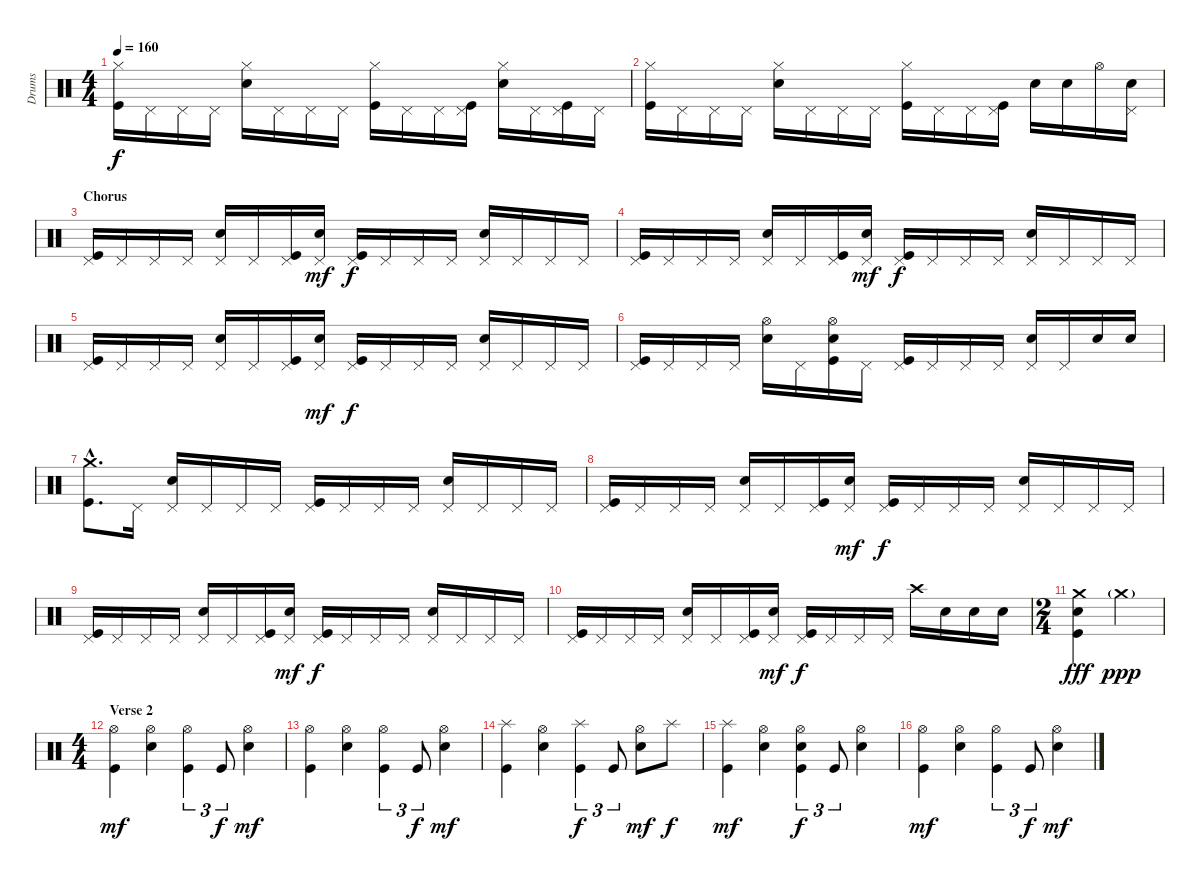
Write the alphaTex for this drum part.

\track ("Drums" "Drums") {instrument percussion}
\staff {score}
\articulation defaults
\ts (4 4)
\tempo 160
\clef neutral
\ks c
("Hi-Hat (closed)" "Kick (hit)").16{dy f} "Pedal Hi-Hat (hit)".16 "Pedal Hi-Hat (hit)".16 "Pedal Hi-Hat (hit)".16 ("Hi-Hat (closed)" "Electric Snare (hit)").16 "Pedal Hi-Hat (hit)".16 "Pedal Hi-Hat (hit)".16 "Pedal Hi-Hat (hit)".16 ("Hi-Hat (closed)" "Kick (hit)").16 "Pedal Hi-Hat (hit)".16 "Pedal Hi-Hat (hit)".16 ("Pedal Hi-Hat (hit)" "Kick (hit)").16 ("Hi-Hat (closed)" "Electric Snare (hit)").16 "Pedal Hi-Hat (hit)".16 ("Pedal Hi-Hat (hit)" "Kick (hit)").16 "Pedal Hi-Hat (hit)".16 |
("Hi-Hat (closed)" "Kick (hit)").16 "Pedal Hi-Hat (hit)".16 "Pedal Hi-Hat (hit)".16 "Pedal Hi-Hat (hit)".16 ("Hi-Hat (closed)" "Electric Snare (hit)").16 "Pedal Hi-Hat (hit)".16 "Pedal Hi-Hat (hit)".16 "Pedal Hi-Hat (hit)".16 ("Hi-Hat (closed)" "Kick (hit)").16 "Pedal Hi-Hat (hit)".16 "Pedal Hi-Hat (hit)".16 ("Pedal Hi-Hat (hit)" "Kick (hit)").16 "Electric Snare (hit)".16 "Electric Snare (hit)".16 "Hi-Hat (open)".16 ("Pedal Hi-Hat (hit)" "Electric Snare (hit)").16 |
\section ("" "Chorus")
("Pedal Hi-Hat (hit)" "Kick (hit)").16 "Pedal Hi-Hat (hit)".16 "Pedal Hi-Hat (hit)".16 "Pedal Hi-Hat (hit)".16 ("Pedal Hi-Hat (hit)" "Electric Snare (hit)").16 "Pedal Hi-Hat (hit)".16 ("Pedal Hi-Hat (hit)" "Kick (hit)").16 ("Pedal Hi-Hat (hit)" "Electric Snare (hit)").16{dy mf} ("Pedal Hi-Hat (hit)" "Kick (hit)").16{dy f} "Pedal Hi-Hat (hit)".16 "Pedal Hi-Hat (hit)".16 "Pedal Hi-Hat (hit)".16 ("Pedal Hi-Hat (hit)" "Electric Snare (hit)").16 "Pedal Hi-Hat (hit)".16 "Pedal Hi-Hat (hit)".16 "Pedal Hi-Hat (hit)".16 |
("Pedal Hi-Hat (hit)" "Kick (hit)").16 "Pedal Hi-Hat (hit)".16 "Pedal Hi-Hat (hit)".16 "Pedal Hi-Hat (hit)".16 ("Pedal Hi-Hat (hit)" "Electric Snare (hit)").16 "Pedal Hi-Hat (hit)".16 ("Pedal Hi-Hat (hit)" "Kick (hit)").16 ("Pedal Hi-Hat (hit)" "Electric Snare (hit)").16{dy mf} ("Pedal Hi-Hat (hit)" "Kick (hit)").16{dy f} "Pedal Hi-Hat (hit)".16 "Pedal Hi-Hat (hit)".16 "Pedal Hi-Hat (hit)".16 ("Pedal Hi-Hat (hit)" "Electric Snare (hit)").16 "Pedal Hi-Hat (hit)".16 "Pedal Hi-Hat (hit)".16 "Pedal Hi-Hat (hit)".16 |
("Pedal Hi-Hat (hit)" "Kick (hit)").16 "Pedal Hi-Hat (hit)".16 "Pedal Hi-Hat (hit)".16 "Pedal Hi-Hat (hit)".16 ("Pedal Hi-Hat (hit)" "Electric Snare (hit)").16 "Pedal Hi-Hat (hit)".16 ("Pedal Hi-Hat (hit)" "Kick (hit)").16 ("Pedal Hi-Hat (hit)" "Electric Snare (hit)").16{dy mf} ("Pedal Hi-Hat (hit)" "Kick (hit)").16{dy f} "Pedal Hi-Hat (hit)".16 "Pedal Hi-Hat (hit)".16 "Pedal Hi-Hat (hit)".16 ("Pedal Hi-Hat (hit)" "Electric Snare (hit)").16 "Pedal Hi-Hat (hit)".16 "Pedal Hi-Hat (hit)".16 "Pedal Hi-Hat (hit)".16 |
("Pedal Hi-Hat (hit)" "Kick (hit)").16 "Pedal Hi-Hat (hit)".16 "Pedal Hi-Hat (hit)".16 "Pedal Hi-Hat (hit)".16 ("Hi-Hat (open)" "Electric Snare (hit)").16 "Pedal Hi-Hat (hit)".16 ("Hi-Hat (open)" "Electric Snare (hit)" "Kick (hit)").16 "Pedal Hi-Hat (hit)".16 ("Pedal Hi-Hat (hit)" "Kick (hit)").16 "Pedal Hi-Hat (hit)".16 "Pedal Hi-Hat (hit)".16 "Pedal Hi-Hat (hit)".16 ("Pedal Hi-Hat (hit)" "Electric Snare (hit)").16 "Pedal Hi-Hat (hit)".16 "Electric Snare (hit)".16 "Electric Snare (hit)".16 |
("Crash medium (hit)"{hac} "Kick (hit)"{hac}).8{d} "Pedal Hi-Hat (hit)".16 ("Pedal Hi-Hat (hit)" "Electric Snare (hit)").16 "Pedal Hi-Hat (hit)".16 "Pedal Hi-Hat (hit)".16 "Pedal Hi-Hat (hit)".16 ("Pedal Hi-Hat (hit)" "Kick (hit)").16 "Pedal Hi-Hat (hit)".16 "Pedal Hi-Hat (hit)".16 "Pedal Hi-Hat (hit)".16 ("Pedal Hi-Hat (hit)" "Electric Snare (hit)").16 "Pedal Hi-Hat (hit)".16 "Pedal Hi-Hat (hit)".16 "Pedal Hi-Hat (hit)".16 |
("Pedal Hi-Hat (hit)" "Kick (hit)").16 "Pedal Hi-Hat (hit)".16 "Pedal Hi-Hat (hit)".16 "Pedal Hi-Hat (hit)".16 ("Pedal Hi-Hat (hit)" "Electric Snare (hit)").16 "Pedal Hi-Hat (hit)".16 ("Pedal Hi-Hat (hit)" "Kick (hit)").16 ("Pedal Hi-Hat (hit)" "Electric Snare (hit)").16{dy mf} ("Pedal Hi-Hat (hit)" "Kick (hit)").16{dy f} "Pedal Hi-Hat (hit)".16 "Pedal Hi-Hat (hit)".16 "Pedal Hi-Hat (hit)".16 ("Pedal Hi-Hat (hit)" "Electric Snare (hit)").16 "Pedal Hi-Hat (hit)".16 "Pedal Hi-Hat (hit)".16 "Pedal Hi-Hat (hit)".16 |
("Pedal Hi-Hat (hit)" "Kick (hit)").16 "Pedal Hi-Hat (hit)".16 "Pedal Hi-Hat (hit)".16 "Pedal Hi-Hat (hit)".16 ("Pedal Hi-Hat (hit)" "Electric Snare (hit)").16 "Pedal Hi-Hat (hit)".16 ("Pedal Hi-Hat (hit)" "Kick (hit)").16 ("Pedal Hi-Hat (hit)" "Electric Snare (hit)").16{dy mf} ("Pedal Hi-Hat (hit)" "Kick (hit)").16{dy f} "Pedal Hi-Hat (hit)".16 "Pedal Hi-Hat (hit)".16 "Pedal Hi-Hat (hit)".16 ("Pedal Hi-Hat (hit)" "Electric Snare (hit)").16 "Pedal Hi-Hat (hit)".16 "Pedal Hi-Hat (hit)".16 "Pedal Hi-Hat (hit)".16 |
("Pedal Hi-Hat (hit)" "Kick (hit)").16 "Pedal Hi-Hat (hit)".16 "Pedal Hi-Hat (hit)".16 "Pedal Hi-Hat (hit)".16 ("Pedal Hi-Hat (hit)" "Electric Snare (hit)").16 "Pedal Hi-Hat (hit)".16 ("Pedal Hi-Hat (hit)" "Kick (hit)").16 ("Pedal Hi-Hat (hit)" "Electric Snare (hit)").16{dy mf} ("Pedal Hi-Hat (hit)" "Kick (hit)").16{dy f} "Pedal Hi-Hat (hit)".16 "Pedal Hi-Hat (hit)".16 "Pedal Hi-Hat (hit)".16 "Crash high (hit)".16 "Electric Snare (hit)".16 "Electric Snare (hit)".16 "Electric Snare (hit)".16 |
\ts (2 4)
("Crash medium (hit)" "Electric Snare (hit)" "Kick (hit)").4{dy fff} "Crash medium (hit)"{g}.4{dy ppp} |
\ts (4 4)
\section ("" "Verse 2")
("Hi-Hat (open)" "Kick (hit)").4{dy mf} ("Hi-Hat (open)" "Electric Snare (hit)").4 ("Hi-Hat (open)" "Kick (hit)").4{tu (3 2)} "Kick (hit)".8{tu (3 2) dy f} ("Hi-Hat (open)" "Electric Snare (hit)").4{dy mf} |
("Hi-Hat (open)" "Kick (hit)").4 ("Hi-Hat (open)" "Electric Snare (hit)").4 ("Hi-Hat (open)" "Kick (hit)").4{tu (3 2)} "Kick (hit)".8{tu (3 2) dy f} ("Hi-Hat (open)" "Electric Snare (hit)").4{dy mf} |
("Splash (hit)" "Kick (hit)").4 ("Hi-Hat (open)" "Electric Snare (hit)").4 ("Splash (hit)" "Kick (hit)").4{tu (3 2) dy f} "Kick (hit)".8{tu (3 2)} ("Hi-Hat (open)" "Electric Snare (hit)").8{dy mf} "Splash (hit)".8{dy f} |
("Splash (hit)" "Kick (hit)").4{dy mf} ("Hi-Hat (open)" "Electric Snare (hit)").4 ("Hi-Hat (open)" "Electric Snare (hit)" "Kick (hit)").4{tu (3 2) dy f} "Kick (hit)".8{tu (3 2)} ("Hi-Hat (open)" "Electric Snare (hit)").4 |
("Hi-Hat (open)" "Kick (hit)").4{dy mf} ("Hi-Hat (open)" "Electric Snare (hit)").4 ("Hi-Hat (open)" "Kick (hit)").4{tu (3 2)} "Kick (hit)".8{tu (3 2) dy f} ("Hi-Hat (open)" "Electric Snare (hit)").4{dy mf}
